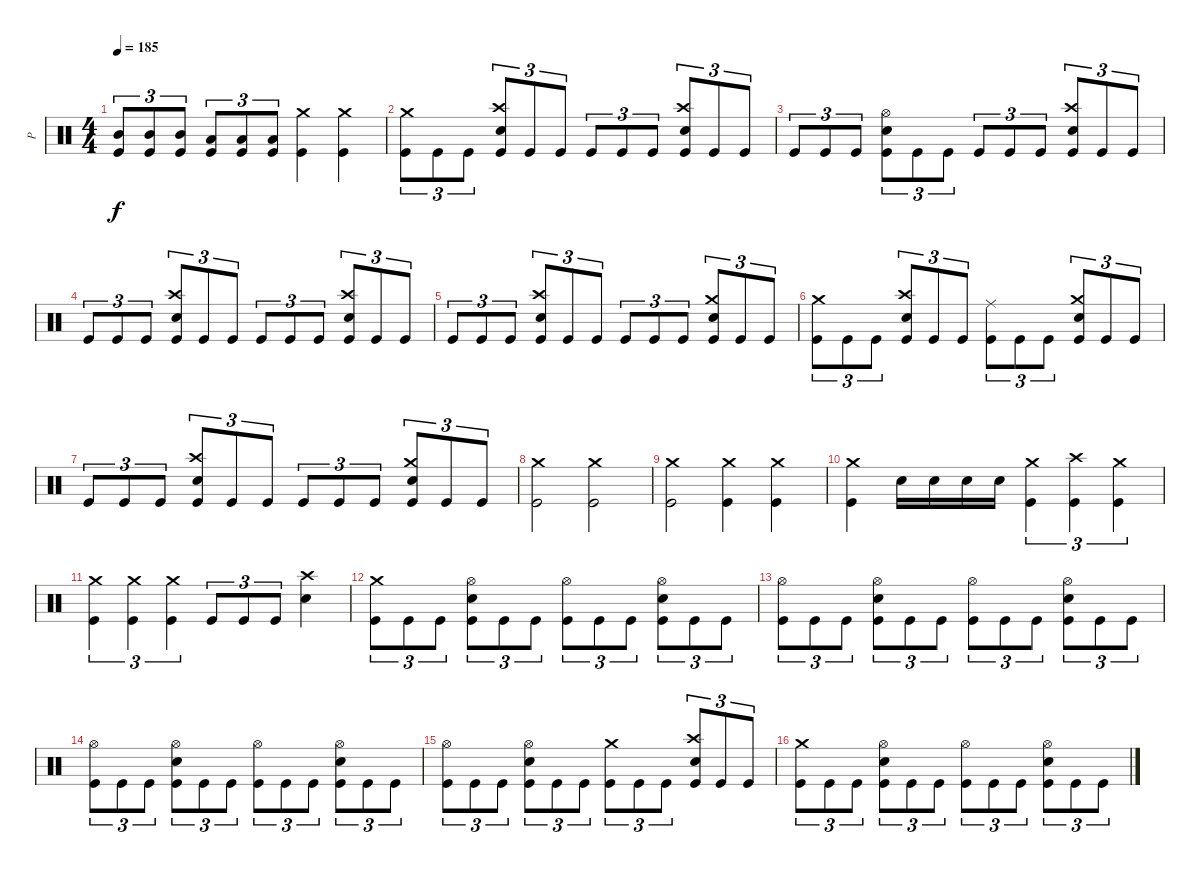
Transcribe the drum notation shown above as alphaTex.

\track ("P" "P") {instrument percussion}
\staff {score}
\articulation defaults
\ts (4 4)
\tempo 185
\clef neutral
\ks c
("Mid Tom (hit)" "Kick (hit)").8{tu (3 2) dy f} ("Mid Tom (hit)" "Kick (hit)").8{tu (3 2)} ("Mid Tom (hit)" "Kick (hit)").8{tu (3 2)} ("Low Tom (hit)" "Kick (hit)").8{tu (3 2)} ("Low Tom (hit)" "Kick (hit)").8{tu (3 2)} ("Low Tom (hit)" "Kick (hit)").8{tu (3 2)} ("Crash medium (hit)" "Kick (hit)").4 ("Crash medium (hit)" "Kick (hit)").4 |
("Crash medium (hit)" "Kick (hit)").8{tu (3 2)} "Kick (hit)".8{tu (3 2)} "Kick (hit)".8{tu (3 2)} ("Crash high (hit)" "Electric Snare (hit)" "Kick (hit)").8{tu (3 2)} "Kick (hit)".8{tu (3 2)} "Kick (hit)".8{tu (3 2)} "Kick (hit)".8{tu (3 2)} "Kick (hit)".8{tu (3 2)} "Kick (hit)".8{tu (3 2)} ("Crash high (hit)" "Electric Snare (hit)" "Kick (hit)").8{tu (3 2)} "Kick (hit)".8{tu (3 2)} "Kick (hit)".8{tu (3 2)} |
"Kick (hit)".8{tu (3 2)} "Kick (hit)".8{tu (3 2)} "Kick (hit)".8{tu (3 2)} ("Hi-Hat (open)" "Electric Snare (hit)" "Kick (hit)").8{tu (3 2)} "Kick (hit)".8{tu (3 2)} "Kick (hit)".8{tu (3 2)} "Kick (hit)".8{tu (3 2)} "Kick (hit)".8{tu (3 2)} "Kick (hit)".8{tu (3 2)} ("Crash high (hit)" "Electric Snare (hit)" "Kick (hit)").8{tu (3 2)} "Kick (hit)".8{tu (3 2)} "Kick (hit)".8{tu (3 2)} |
"Kick (hit)".8{tu (3 2)} "Kick (hit)".8{tu (3 2)} "Kick (hit)".8{tu (3 2)} ("Crash high (hit)" "Electric Snare (hit)" "Kick (hit)").8{tu (3 2)} "Kick (hit)".8{tu (3 2)} "Kick (hit)".8{tu (3 2)} "Kick (hit)".8{tu (3 2)} "Kick (hit)".8{tu (3 2)} "Kick (hit)".8{tu (3 2)} ("Crash high (hit)" "Electric Snare (hit)" "Kick (hit)").8{tu (3 2)} "Kick (hit)".8{tu (3 2)} "Kick (hit)".8{tu (3 2)} |
"Kick (hit)".8{tu (3 2)} "Kick (hit)".8{tu (3 2)} "Kick (hit)".8{tu (3 2)} ("Crash high (hit)" "Electric Snare (hit)" "Kick (hit)").8{tu (3 2)} "Kick (hit)".8{tu (3 2)} "Kick (hit)".8{tu (3 2)} "Kick (hit)".8{tu (3 2)} "Kick (hit)".8{tu (3 2)} "Kick (hit)".8{tu (3 2)} ("Crash medium (hit)" "Electric Snare (hit)" "Kick (hit)").8{tu (3 2)} "Kick (hit)".8{tu (3 2)} "Kick (hit)".8{tu (3 2)} |
("Crash medium (hit)" "Kick (hit)").8{tu (3 2)} "Kick (hit)".8{tu (3 2)} "Kick (hit)".8{tu (3 2)} ("Crash high (hit)" "Electric Snare (hit)" "Kick (hit)").8{tu (3 2)} "Kick (hit)".8{tu (3 2)} "Kick (hit)".8{tu (3 2)} ("Ride (middle)" "Kick (hit)").8{tu (3 2)} "Kick (hit)".8{tu (3 2)} "Kick (hit)".8{tu (3 2)} ("Crash medium (hit)" "Electric Snare (hit)" "Kick (hit)").8{tu (3 2)} "Kick (hit)".8{tu (3 2)} "Kick (hit)".8{tu (3 2)} |
"Kick (hit)".8{tu (3 2)} "Kick (hit)".8{tu (3 2)} "Kick (hit)".8{tu (3 2)} ("Crash high (hit)" "Electric Snare (hit)" "Kick (hit)").8{tu (3 2)} "Kick (hit)".8{tu (3 2)} "Kick (hit)".8{tu (3 2)} "Kick (hit)".8{tu (3 2)} "Kick (hit)".8{tu (3 2)} "Kick (hit)".8{tu (3 2)} ("Crash medium (hit)" "Electric Snare (hit)" "Kick (hit)").8{tu (3 2)} "Kick (hit)".8{tu (3 2)} "Kick (hit)".8{tu (3 2)} |
("Crash medium (hit)" "Kick (hit)").2 ("Crash medium (hit)" "Kick (hit)").2 |
("Crash medium (hit)" "Kick (hit)").2 ("Crash medium (hit)" "Kick (hit)").4 ("Crash medium (hit)" "Kick (hit)").4 |
("Crash medium (hit)" "Kick (hit)").4 "Electric Snare (hit)".16 "Electric Snare (hit)".16 "Electric Snare (hit)".16 "Electric Snare (hit)".16 ("Crash medium (hit)" "Kick (hit)").4{tu (3 2)} ("Crash high (hit)" "Kick (hit)").4{tu (3 2)} ("Crash medium (hit)" "Kick (hit)").4{tu (3 2)} |
("Crash medium (hit)" "Kick (hit)").4{tu (3 2)} ("Crash medium (hit)" "Kick (hit)").4{tu (3 2)} ("Crash medium (hit)" "Kick (hit)").4{tu (3 2)} "Kick (hit)".8{tu (3 2)} "Kick (hit)".8{tu (3 2)} "Kick (hit)".8{tu (3 2)} ("Crash high (hit)" "Electric Snare (hit)").4 |
("Crash medium (hit)" "Kick (hit)").8{tu (3 2)} "Kick (hit)".8{tu (3 2)} "Kick (hit)".8{tu (3 2)} ("Hi-Hat (open)" "Electric Snare (hit)" "Kick (hit)").8{tu (3 2)} "Kick (hit)".8{tu (3 2)} "Kick (hit)".8{tu (3 2)} ("Hi-Hat (open)" "Kick (hit)").8{tu (3 2)} "Kick (hit)".8{tu (3 2)} "Kick (hit)".8{tu (3 2)} ("Hi-Hat (open)" "Electric Snare (hit)" "Kick (hit)").8{tu (3 2)} "Kick (hit)".8{tu (3 2)} "Kick (hit)".8{tu (3 2)} |
("Hi-Hat (open)" "Kick (hit)").8{tu (3 2)} "Kick (hit)".8{tu (3 2)} "Kick (hit)".8{tu (3 2)} ("Hi-Hat (open)" "Electric Snare (hit)" "Kick (hit)").8{tu (3 2)} "Kick (hit)".8{tu (3 2)} "Kick (hit)".8{tu (3 2)} ("Hi-Hat (open)" "Kick (hit)").8{tu (3 2)} "Kick (hit)".8{tu (3 2)} "Kick (hit)".8{tu (3 2)} ("Hi-Hat (open)" "Electric Snare (hit)" "Kick (hit)").8{tu (3 2)} "Kick (hit)".8{tu (3 2)} "Kick (hit)".8{tu (3 2)} |
("Hi-Hat (open)" "Kick (hit)").8{tu (3 2)} "Kick (hit)".8{tu (3 2)} "Kick (hit)".8{tu (3 2)} ("Hi-Hat (open)" "Electric Snare (hit)" "Kick (hit)").8{tu (3 2)} "Kick (hit)".8{tu (3 2)} "Kick (hit)".8{tu (3 2)} ("Hi-Hat (open)" "Kick (hit)").8{tu (3 2)} "Kick (hit)".8{tu (3 2)} "Kick (hit)".8{tu (3 2)} ("Hi-Hat (open)" "Electric Snare (hit)" "Kick (hit)").8{tu (3 2)} "Kick (hit)".8{tu (3 2)} "Kick (hit)".8{tu (3 2)} |
("Hi-Hat (open)" "Kick (hit)").8{tu (3 2)} "Kick (hit)".8{tu (3 2)} "Kick (hit)".8{tu (3 2)} ("Hi-Hat (open)" "Electric Snare (hit)" "Kick (hit)").8{tu (3 2)} "Kick (hit)".8{tu (3 2)} "Kick (hit)".8{tu (3 2)} ("Crash medium (hit)" "Kick (hit)").8{tu (3 2)} "Kick (hit)".8{tu (3 2)} "Kick (hit)".8{tu (3 2)} ("Crash high (hit)" "Electric Snare (hit)" "Kick (hit)").8{tu (3 2)} "Kick (hit)".8{tu (3 2)} "Kick (hit)".8{tu (3 2)} |
("Crash medium (hit)" "Kick (hit)").8{tu (3 2)} "Kick (hit)".8{tu (3 2)} "Kick (hit)".8{tu (3 2)} ("Hi-Hat (open)" "Electric Snare (hit)" "Kick (hit)").8{tu (3 2)} "Kick (hit)".8{tu (3 2)} "Kick (hit)".8{tu (3 2)} ("Hi-Hat (open)" "Kick (hit)").8{tu (3 2)} "Kick (hit)".8{tu (3 2)} "Kick (hit)".8{tu (3 2)} ("Hi-Hat (open)" "Electric Snare (hit)" "Kick (hit)").8{tu (3 2)} "Kick (hit)".8{tu (3 2)} "Kick (hit)".8{tu (3 2)}
